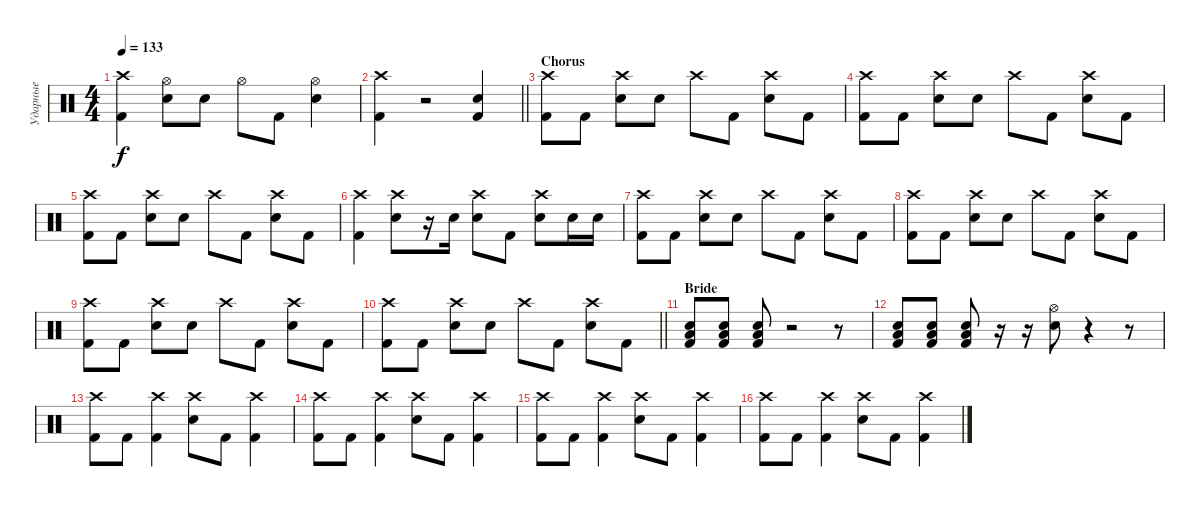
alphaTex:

\track ("Ударные" "Ударные") {instrument percussion}
\staff {score}
\articulation defaults
\ts (4 4)
\tempo 133
\clef neutral
\ks c
("Crash high (hit)" "Kick (hit) 2").4{dy f} ("Hi-Hat (open)" "Electric Snare (hit)").8 "Electric Snare (hit)".8 "Hi-Hat (open)".8 "Kick (hit) 2".8 ("Hi-Hat (open)" "Electric Snare (hit)").4 |
\barLineRight lightlight
("Crash high (hit)" "Kick (hit) 2").4 r.2 ("Electric Snare (hit)" "Kick (hit) 2").4 |
\section ("" "Chorus")
("Crash high (hit)" "Kick (hit) 2").8 "Kick (hit) 2".8 ("Crash high (hit)" "Electric Snare (hit)").8 "Electric Snare (hit)".8 "Crash high (hit)".8 "Kick (hit) 2".8 ("Crash high (hit)" "Electric Snare (hit)").8 "Kick (hit) 2".8 |
("Crash high (hit)" "Kick (hit) 2").8 "Kick (hit) 2".8 ("Crash high (hit)" "Electric Snare (hit)").8 "Electric Snare (hit)".8 "Crash high (hit)".8 "Kick (hit) 2".8 ("Crash high (hit)" "Electric Snare (hit)").8 "Kick (hit) 2".8 |
("Crash high (hit)" "Kick (hit) 2").8 "Kick (hit) 2".8 ("Crash high (hit)" "Electric Snare (hit)").8 "Electric Snare (hit)".8 "Crash high (hit)".8 "Kick (hit) 2".8 ("Crash high (hit)" "Electric Snare (hit)").8 "Kick (hit) 2".8 |
("Crash high (hit)" "Kick (hit) 2").4 ("Crash high (hit)" "Electric Snare (hit)").8 r.16 "Electric Snare (hit)".16 ("Crash high (hit)" "Electric Snare (hit)").8 "Kick (hit) 2".8 ("Crash high (hit)" "Electric Snare (hit)").8 "Electric Snare (hit)".16 "Electric Snare (hit)".16 |
("Crash high (hit)" "Kick (hit) 2").8 "Kick (hit) 2".8 ("Crash high (hit)" "Electric Snare (hit)").8 "Electric Snare (hit)".8 "Crash high (hit)".8 "Kick (hit) 2".8 ("Crash high (hit)" "Electric Snare (hit)").8 "Kick (hit) 2".8 |
("Crash high (hit)" "Kick (hit) 2").8 "Kick (hit) 2".8 ("Crash high (hit)" "Electric Snare (hit)").8 "Electric Snare (hit)".8 "Crash high (hit)".8 "Kick (hit) 2".8 ("Crash high (hit)" "Electric Snare (hit)").8 "Kick (hit) 2".8 |
("Crash high (hit)" "Kick (hit) 2").8 "Kick (hit) 2".8 ("Crash high (hit)" "Electric Snare (hit)").8 "Electric Snare (hit)".8 "Crash high (hit)".8 "Kick (hit) 2".8 ("Crash high (hit)" "Electric Snare (hit)").8 "Kick (hit) 2".8 |
\barLineRight lightlight
("Crash high (hit)" "Kick (hit) 2").8 "Kick (hit) 2".8 ("Crash high (hit)" "Electric Snare (hit)").8 "Electric Snare (hit)".8 "Crash high (hit)".8 "Kick (hit) 2".8 ("Crash high (hit)" "Electric Snare (hit)").8 "Kick (hit) 2".8 |
\section ("" "Bride")
("Electric Snare (hit)" "Low Floor Tom (hit)" "Kick (hit) 2").8 ("Electric Snare (hit)" "Low Floor Tom (hit)" "Kick (hit) 2").8 ("Electric Snare (hit)" "Low Floor Tom (hit)" "Kick (hit) 2").8 r.2 r.8 |
("Electric Snare (hit)" "Low Floor Tom (hit)" "Kick (hit) 2").8 ("Electric Snare (hit)" "Low Floor Tom (hit)" "Kick (hit) 2").8 ("Electric Snare (hit)" "Low Floor Tom (hit)" "Kick (hit) 2").8 r.16 r.16 ("Hi-Hat (open)" "Electric Snare (hit)").8 r.4 r.8 |
("Crash high (hit)" "Kick (hit) 2").8 "Kick (hit) 2".8 ("Crash high (hit)" "Kick (hit) 2").4 ("Crash high (hit)" "Electric Snare (hit)").8 "Kick (hit) 2".8 ("Crash high (hit)" "Kick (hit) 2").4 |
("Crash high (hit)" "Kick (hit) 2").8 "Kick (hit) 2".8 ("Crash high (hit)" "Kick (hit) 2").4 ("Crash high (hit)" "Electric Snare (hit)").8 "Kick (hit) 2".8 ("Crash high (hit)" "Kick (hit) 2").4 |
("Crash high (hit)" "Kick (hit) 2").8 "Kick (hit) 2".8 ("Crash high (hit)" "Kick (hit) 2").4 ("Crash high (hit)" "Electric Snare (hit)").8 "Kick (hit) 2".8 ("Crash high (hit)" "Kick (hit) 2").4 |
("Crash high (hit)" "Kick (hit) 2").8 "Kick (hit) 2".8 ("Crash high (hit)" "Kick (hit) 2").4 ("Crash high (hit)" "Electric Snare (hit)").8 "Kick (hit) 2".8 ("Crash high (hit)" "Kick (hit) 2").4
